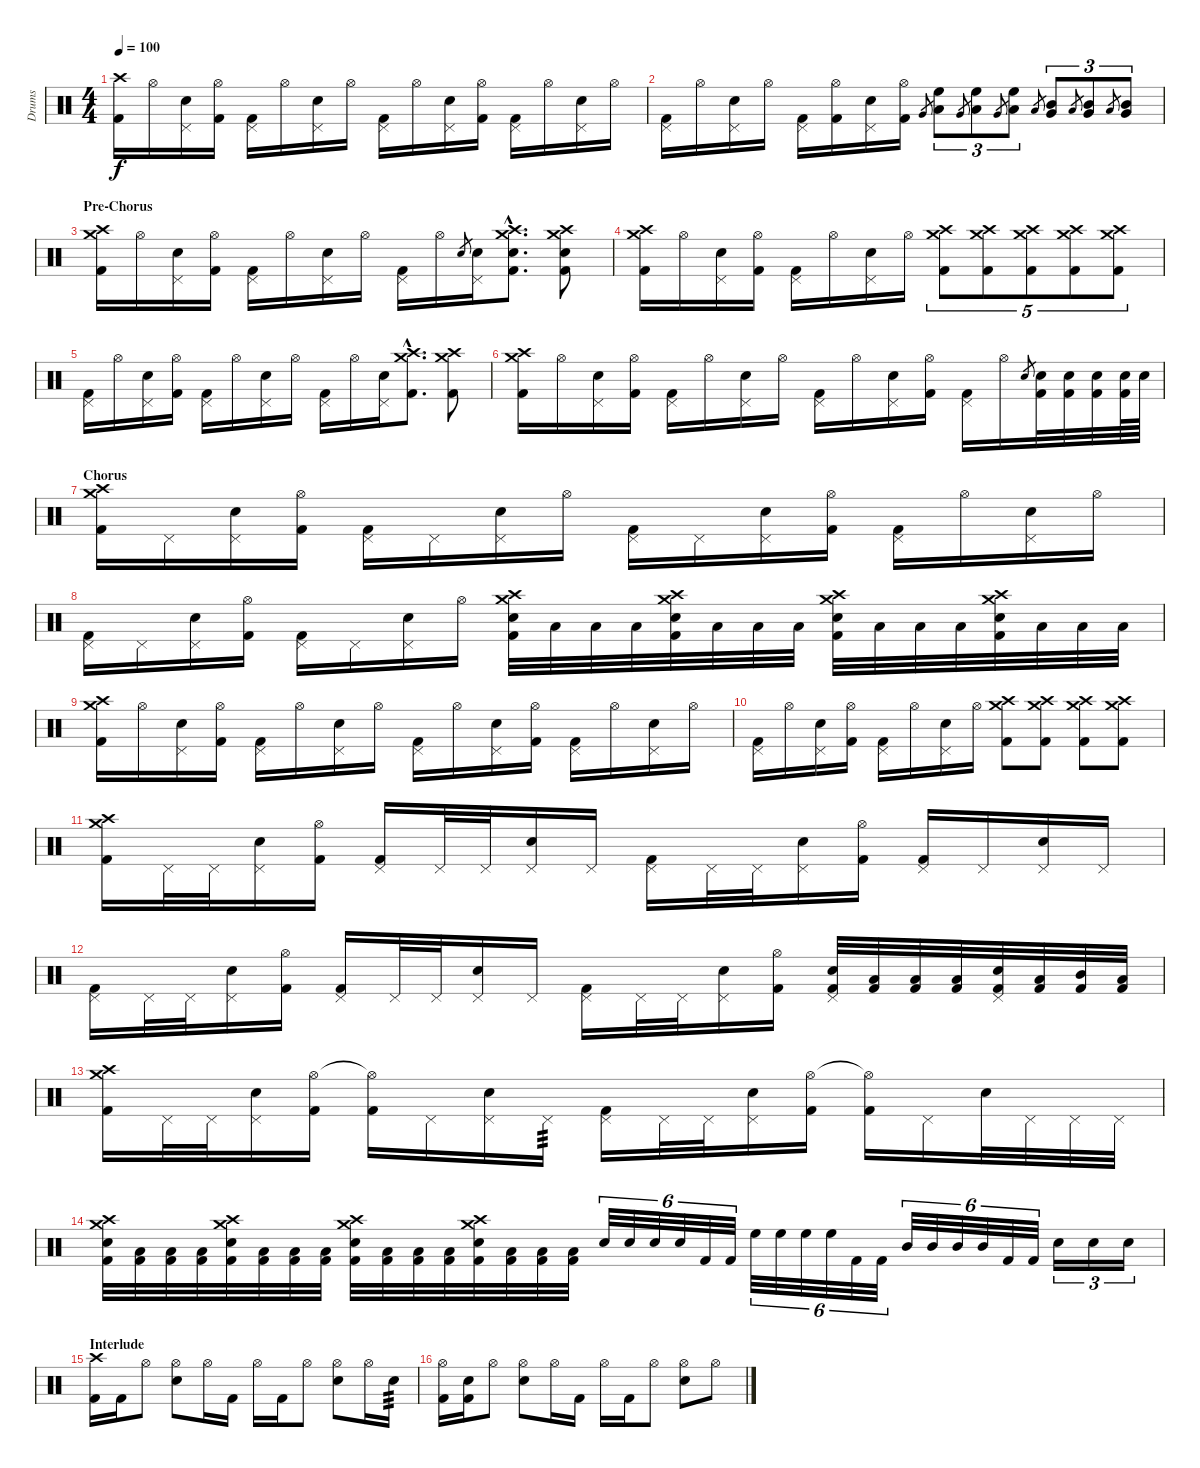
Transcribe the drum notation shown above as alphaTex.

\track ("Drums" "Drums") {instrument percussion}
\staff {score}
\articulation defaults
\ts (4 4)
\tempo 100
\clef neutral
\ks c
("Crash high (hit)" "Kick (hit) 2").16{dy f} "Hi-Hat (open)".16 ("Pedal Hi-Hat (hit)" "Electric Snare (hit)").16 ("Hi-Hat (open)" "Kick (hit) 2").16 ("Pedal Hi-Hat (hit)" "Kick (hit) 2").16 "Hi-Hat (open)".16 ("Pedal Hi-Hat (hit)" "Electric Snare (hit)").16 "Hi-Hat (open)".16 ("Pedal Hi-Hat (hit)" "Kick (hit) 2").16 "Hi-Hat (open)".16 ("Pedal Hi-Hat (hit)" "Electric Snare (hit)").16 ("Hi-Hat (open)" "Kick (hit) 2").16 ("Pedal Hi-Hat (hit)" "Kick (hit) 2").16 "Hi-Hat (open)".16 ("Pedal Hi-Hat (hit)" "Electric Snare (hit)").16 "Hi-Hat (open)".16 |
("Pedal Hi-Hat (hit)" "Kick (hit) 2").16 "Hi-Hat (open)".16 ("Pedal Hi-Hat (hit)" "Electric Snare (hit)").16 "Hi-Hat (open)".16 ("Pedal Hi-Hat (hit)" "Kick (hit) 2").16 ("Hi-Hat (open)" "Kick (hit) 2").16 ("Pedal Hi-Hat (hit)" "Electric Snare (hit)").16 ("Hi-Hat (open)" "Kick (hit) 2").16 "Very Low Tom (hit)".8{gr} ("Low Tom (hit)" "High Floor Tom (hit)").8{tu (3 2)} "Very Low Tom (hit)".8{gr} ("Low Tom (hit)" "High Floor Tom (hit)").8{tu (3 2)} "Very Low Tom (hit)".8{gr} ("Low Tom (hit)" "High Floor Tom (hit)").8{tu (3 2)} "Low Floor Tom (hit)".8{gr} ("Very Low Tom (hit)" "Mid Tom (hit)").8{tu (3 2)} "Low Floor Tom (hit)".8{gr} ("Very Low Tom (hit)" "Mid Tom (hit)").8{tu (3 2)} "Low Floor Tom (hit)".8{gr} ("Very Low Tom (hit)" "Mid Tom (hit)").8{tu (3 2)} |
\section ("" "Pre-Chorus")
("Crash high (hit)" "Crash medium (hit)" "Kick (hit) 2").16 "Hi-Hat (open)".16 ("Pedal Hi-Hat (hit)" "Electric Snare (hit)").16 ("Hi-Hat (open)" "Kick (hit) 2").16 ("Pedal Hi-Hat (hit)" "Kick (hit) 2").16 "Hi-Hat (open)".16 ("Pedal Hi-Hat (hit)" "Electric Snare (hit)").16 "Hi-Hat (open)".16 ("Pedal Hi-Hat (hit)" "Kick (hit) 2").16 "Hi-Hat (open)".16 "Electric Snare (hit)".8{gr} ("Pedal Hi-Hat (hit)" "Electric Snare (hit)").16 ("Crash high (hit)"{hac} "Crash medium (hit)"{hac} "Electric Snare (hit)"{hac} "Kick (hit) 2"{hac}).8{d} ("Crash high (hit)" "Crash medium (hit)" "Electric Snare (hit)" "Kick (hit) 2").8 |
("Crash high (hit)" "Crash medium (hit)" "Kick (hit) 2").16 "Hi-Hat (open)".16 ("Pedal Hi-Hat (hit)" "Electric Snare (hit)").16 ("Hi-Hat (open)" "Kick (hit) 2").16 ("Pedal Hi-Hat (hit)" "Kick (hit) 2").16 "Hi-Hat (open)".16 ("Pedal Hi-Hat (hit)" "Electric Snare (hit)").16 "Hi-Hat (open)".16 ("Crash high (hit)" "Crash medium (hit)" "Kick (hit) 2").8{tu (5 4)} ("Crash high (hit)" "Crash medium (hit)" "Kick (hit) 2").8{tu (5 4)} ("Crash high (hit)" "Crash medium (hit)" "Kick (hit) 2").8{tu (5 4)} ("Crash high (hit)" "Crash medium (hit)" "Kick (hit) 2").8{tu (5 4)} ("Crash high (hit)" "Crash medium (hit)" "Kick (hit) 2").8{tu (5 4)} |
("Pedal Hi-Hat (hit)" "Kick (hit) 2").16 "Hi-Hat (open)".16 ("Pedal Hi-Hat (hit)" "Electric Snare (hit)").16 ("Hi-Hat (open)" "Kick (hit) 2").16 ("Pedal Hi-Hat (hit)" "Kick (hit) 2").16 "Hi-Hat (open)".16 ("Pedal Hi-Hat (hit)" "Electric Snare (hit)").16 "Hi-Hat (open)".16 ("Pedal Hi-Hat (hit)" "Kick (hit) 2").16 "Hi-Hat (open)".16 ("Pedal Hi-Hat (hit)" "Electric Snare (hit)").16 ("Crash high (hit)"{hac} "Crash medium (hit)"{hac} "Kick (hit) 2"{hac}).8{d} ("Crash high (hit)" "Crash medium (hit)" "Kick (hit) 2").8 |
("Crash high (hit)" "Crash medium (hit)" "Kick (hit) 2").16 "Hi-Hat (open)".16 ("Pedal Hi-Hat (hit)" "Electric Snare (hit)").16 ("Hi-Hat (open)" "Kick (hit) 2").16 ("Pedal Hi-Hat (hit)" "Kick (hit) 2").16 "Hi-Hat (open)".16 ("Pedal Hi-Hat (hit)" "Electric Snare (hit)").16 "Hi-Hat (open)".16 ("Pedal Hi-Hat (hit)" "Kick (hit) 2").16 "Hi-Hat (open)".16 ("Pedal Hi-Hat (hit)" "Electric Snare (hit)").16 ("Hi-Hat (open)" "Kick (hit) 2").16 ("Pedal Hi-Hat (hit)" "Kick (hit) 2").16 "Hi-Hat (open)".16 "Electric Snare (hit)".8{gr} ("Electric Snare (hit)" "Kick (hit) 2").32 ("Electric Snare (hit)" "Kick (hit) 2").32 ("Electric Snare (hit)" "Kick (hit) 2").32 ("Electric Snare (hit)" "Kick (hit) 2").64 "Electric Snare (hit)".64 |
\section ("" "Chorus")
("Crash medium (hit)" "Crash high (hit)" "Kick (hit) 2").16 "Pedal Hi-Hat (hit)".16 ("Pedal Hi-Hat (hit)" "Electric Snare (hit)").16 ("Hi-Hat (open)" "Kick (hit) 2").16 ("Pedal Hi-Hat (hit)" "Kick (hit) 2").16 "Pedal Hi-Hat (hit)".16 ("Pedal Hi-Hat (hit)" "Electric Snare (hit)").16 "Hi-Hat (open)".16 ("Pedal Hi-Hat (hit)" "Kick (hit) 2").16 "Pedal Hi-Hat (hit)".16 ("Pedal Hi-Hat (hit)" "Electric Snare (hit)").16 ("Hi-Hat (open)" "Kick (hit) 2").16 ("Pedal Hi-Hat (hit)" "Kick (hit) 2").16 "Hi-Hat (open)".16 ("Pedal Hi-Hat (hit)" "Electric Snare (hit)").16 "Hi-Hat (open)".16 |
("Pedal Hi-Hat (hit)" "Kick (hit) 2").16 "Pedal Hi-Hat (hit)".16 ("Pedal Hi-Hat (hit)" "Electric Snare (hit)").16 ("Hi-Hat (open)" "Kick (hit) 2").16 ("Pedal Hi-Hat (hit)" "Kick (hit) 2").16 "Pedal Hi-Hat (hit)".16 ("Pedal Hi-Hat (hit)" "Electric Snare (hit)").16 "Hi-Hat (open)".16 ("Crash medium (hit)" "Crash high (hit)" "Electric Snare (hit)" "Kick (hit) 2").32 "Low Tom (hit)".32 "Low Tom (hit)".32 "Low Tom (hit)".32 ("Crash medium (hit)" "Crash high (hit)" "Electric Snare (hit)" "Kick (hit) 2").32 "Low Tom (hit)".32 "Low Tom (hit)".32 "Low Tom (hit)".32 ("Crash medium (hit)" "Crash high (hit)" "Electric Snare (hit)" "Kick (hit) 2").32 "Low Tom (hit)".32 "Low Tom (hit)".32 "Low Tom (hit)".32 ("Crash medium (hit)" "Crash high (hit)" "Electric Snare (hit)" "Kick (hit) 2").32 "Low Tom (hit)".32 "Low Tom (hit)".32 "Low Tom (hit)".32 |
("Crash medium (hit)" "Crash high (hit)" "Kick (hit) 2").16 "Hi-Hat (open)".16 ("Pedal Hi-Hat (hit)" "Electric Snare (hit)").16 ("Hi-Hat (open)" "Kick (hit) 2").16 ("Pedal Hi-Hat (hit)" "Kick (hit) 2").16 "Hi-Hat (open)".16 ("Pedal Hi-Hat (hit)" "Electric Snare (hit)").16 "Hi-Hat (open)".16 ("Pedal Hi-Hat (hit)" "Kick (hit) 2").16 "Hi-Hat (open)".16 ("Pedal Hi-Hat (hit)" "Electric Snare (hit)").16 ("Hi-Hat (open)" "Kick (hit) 2").16 ("Pedal Hi-Hat (hit)" "Kick (hit) 2").16 "Hi-Hat (open)".16 ("Pedal Hi-Hat (hit)" "Electric Snare (hit)").16 "Hi-Hat (open)".16 |
("Pedal Hi-Hat (hit)" "Kick (hit) 2").16 "Hi-Hat (open)".16 ("Pedal Hi-Hat (hit)" "Electric Snare (hit)").16 ("Hi-Hat (open)" "Kick (hit) 2").16 ("Pedal Hi-Hat (hit)" "Kick (hit) 2").16 "Hi-Hat (open)".16 ("Pedal Hi-Hat (hit)" "Electric Snare (hit)").16 "Hi-Hat (open)".16 ("Crash medium (hit)" "Crash high (hit)" "Kick (hit) 2").8 ("Crash medium (hit)" "Crash high (hit)" "Kick (hit) 2").8 ("Crash medium (hit)" "Crash high (hit)" "Kick (hit) 2").8 ("Crash medium (hit)" "Crash high (hit)" "Kick (hit) 2").8 |
("Crash medium (hit)" "Crash high (hit)" "Kick (hit) 2").16 "Pedal Hi-Hat (hit)".32 "Pedal Hi-Hat (hit)".32 ("Pedal Hi-Hat (hit)" "Electric Snare (hit)").16 ("Hi-Hat (open)" "Kick (hit) 2").16 ("Pedal Hi-Hat (hit)" "Kick (hit) 2").16 "Pedal Hi-Hat (hit)".32 "Pedal Hi-Hat (hit)".32 ("Pedal Hi-Hat (hit)" "Electric Snare (hit)").16 "Pedal Hi-Hat (hit)".16 ("Pedal Hi-Hat (hit)" "Kick (hit) 2").16 "Pedal Hi-Hat (hit)".32 "Pedal Hi-Hat (hit)".32 ("Pedal Hi-Hat (hit)" "Electric Snare (hit)").16 ("Hi-Hat (open)" "Kick (hit) 2").16 ("Pedal Hi-Hat (hit)" "Kick (hit) 2").16 "Pedal Hi-Hat (hit)".16 ("Pedal Hi-Hat (hit)" "Electric Snare (hit)").16 "Pedal Hi-Hat (hit)".16 |
("Pedal Hi-Hat (hit)" "Kick (hit) 2").16 "Pedal Hi-Hat (hit)".32 "Pedal Hi-Hat (hit)".32 ("Pedal Hi-Hat (hit)" "Electric Snare (hit)").16 ("Hi-Hat (open)" "Kick (hit) 2").16 ("Pedal Hi-Hat (hit)" "Kick (hit) 2").16 "Pedal Hi-Hat (hit)".32 "Pedal Hi-Hat (hit)".32 ("Pedal Hi-Hat (hit)" "Electric Snare (hit)").16 "Pedal Hi-Hat (hit)".16 ("Pedal Hi-Hat (hit)" "Kick (hit) 2").16 "Pedal Hi-Hat (hit)".32 "Pedal Hi-Hat (hit)".32 ("Pedal Hi-Hat (hit)" "Electric Snare (hit)").16 ("Hi-Hat (open)" "Kick (hit) 2").16 ("Pedal Hi-Hat (hit)" "Electric Snare (hit)" "Kick (hit) 2").32 ("Low Tom (hit)" "Kick (hit) 2").32 ("Low Tom (hit)" "Kick (hit) 2").32 ("Low Tom (hit)" "Kick (hit) 2").32 ("Pedal Hi-Hat (hit)" "Electric Snare (hit)" "Kick (hit) 2").32 ("Low Tom (hit)" "Kick (hit) 2").32 ("Mid Tom (hit)" "Kick (hit) 2").32 ("Low Floor Tom (hit)" "Kick (hit) 2").32 |
("Crash medium (hit)" "Crash high (hit)" "Kick (hit) 2").16 "Pedal Hi-Hat (hit)".32 "Pedal Hi-Hat (hit)".32 ("Pedal Hi-Hat (hit)" "Electric Snare (hit)").16 ("Hi-Hat (open)" "Kick (hit) 2").16 ("Hi-Hat (open)"{t} "Kick (hit) 2").16 "Pedal Hi-Hat (hit)".16 ("Pedal Hi-Hat (hit)" "Electric Snare (hit)").16 "Pedal Hi-Hat (hit)".16{tp 3} ("Pedal Hi-Hat (hit)" "Kick (hit) 2").16 "Pedal Hi-Hat (hit)".32 "Pedal Hi-Hat (hit)".32 ("Pedal Hi-Hat (hit)" "Electric Snare (hit)").16 ("Hi-Hat (open)" "Kick (hit) 2").16 ("Hi-Hat (open)"{t} "Kick (hit) 2").16 "Pedal Hi-Hat (hit)".16 "Electric Snare (hit)".32 "Pedal Hi-Hat (hit)".32 "Pedal Hi-Hat (hit)".32 "Pedal Hi-Hat (hit)".32 |
("Crash medium (hit)" "Crash high (hit)" "Electric Snare (hit)" "Kick (hit) 2").32 ("Low Tom (hit)" "Kick (hit) 2").32 ("Low Tom (hit)" "Kick (hit) 2").32 ("Low Tom (hit)" "Kick (hit) 2").32 ("Crash medium (hit)" "Crash high (hit)" "Electric Snare (hit)" "Kick (hit) 2").32 ("Low Tom (hit)" "Kick (hit) 2").32 ("Low Tom (hit)" "Kick (hit) 2").32 ("Low Tom (hit)" "Kick (hit) 2").32 ("Crash medium (hit)" "Crash high (hit)" "Electric Snare (hit)" "Kick (hit) 2").32 ("Low Tom (hit)" "Kick (hit) 2").32 ("Low Tom (hit)" "Kick (hit) 2").32 ("Low Tom (hit)" "Kick (hit) 2").32 ("Crash medium (hit)" "Crash high (hit)" "Electric Snare (hit)" "Kick (hit) 2").32 ("Low Tom (hit)" "Kick (hit) 2").32 ("Low Tom (hit)" "Kick (hit) 2").32 ("Low Tom (hit)" "Kick (hit) 2").32 "Electric Snare (hit)".32{tu (6 4)} "Electric Snare (hit)".32{tu (6 4)} "Electric Snare (hit)".32{tu (6 4)} "Electric Snare (hit)".32{tu (6 4)} "Kick (hit) 2".32{tu (6 4)} "Kick (hit) 2".32{tu (6 4)} "High Floor Tom (hit)".32{tu (6 4)} "High Floor Tom (hit)".32{tu (6 4)} "High Floor Tom (hit)".32{tu (6 4)} "High Floor Tom (hit)".32{tu (6 4)} "Kick (hit) 2".32{tu (6 4)} "Kick (hit) 2".32{tu (6 4)} "Mid Tom (hit)".32{tu (6 4)} "Mid Tom (hit)".32{tu (6 4)} "Mid Tom (hit)".32{tu (6 4)} "Mid Tom (hit)".32{tu (6 4)} "Kick (hit) 2".32{tu (6 4)} "Kick (hit) 2".32{tu (6 4)} "Electric Snare (hit)".16{tu (3 2)} "Electric Snare (hit)".16{tu (3 2)} "Electric Snare (hit)".16{tu (3 2)} |
\section ("" "Interlude")
("Crash high (hit)" "Kick (hit) 2").16 "Kick (hit) 2".16 "Hi-Hat (open)".8 ("Hi-Hat (open)" "Electric Snare (hit)").8 "Hi-Hat (open)".16 "Kick (hit) 2".16 "Hi-Hat (open)".16 "Kick (hit) 2".16 "Hi-Hat (open)".8 ("Hi-Hat (open)" "Electric Snare (hit)").8 "Hi-Hat (open)".16 "Electric Snare (hit)".16{tp 3} |
("Hi-Hat (open)" "Kick (hit) 2").16 ("Electric Snare (hit)" "Kick (hit) 2").16 "Hi-Hat (open)".8 ("Hi-Hat (open)" "Electric Snare (hit)").8 "Hi-Hat (open)".16 "Kick (hit) 2".16 "Hi-Hat (open)".16 "Kick (hit) 2".16 "Hi-Hat (open)".8 ("Hi-Hat (open)" "Electric Snare (hit)").8 "Hi-Hat (open)".8
